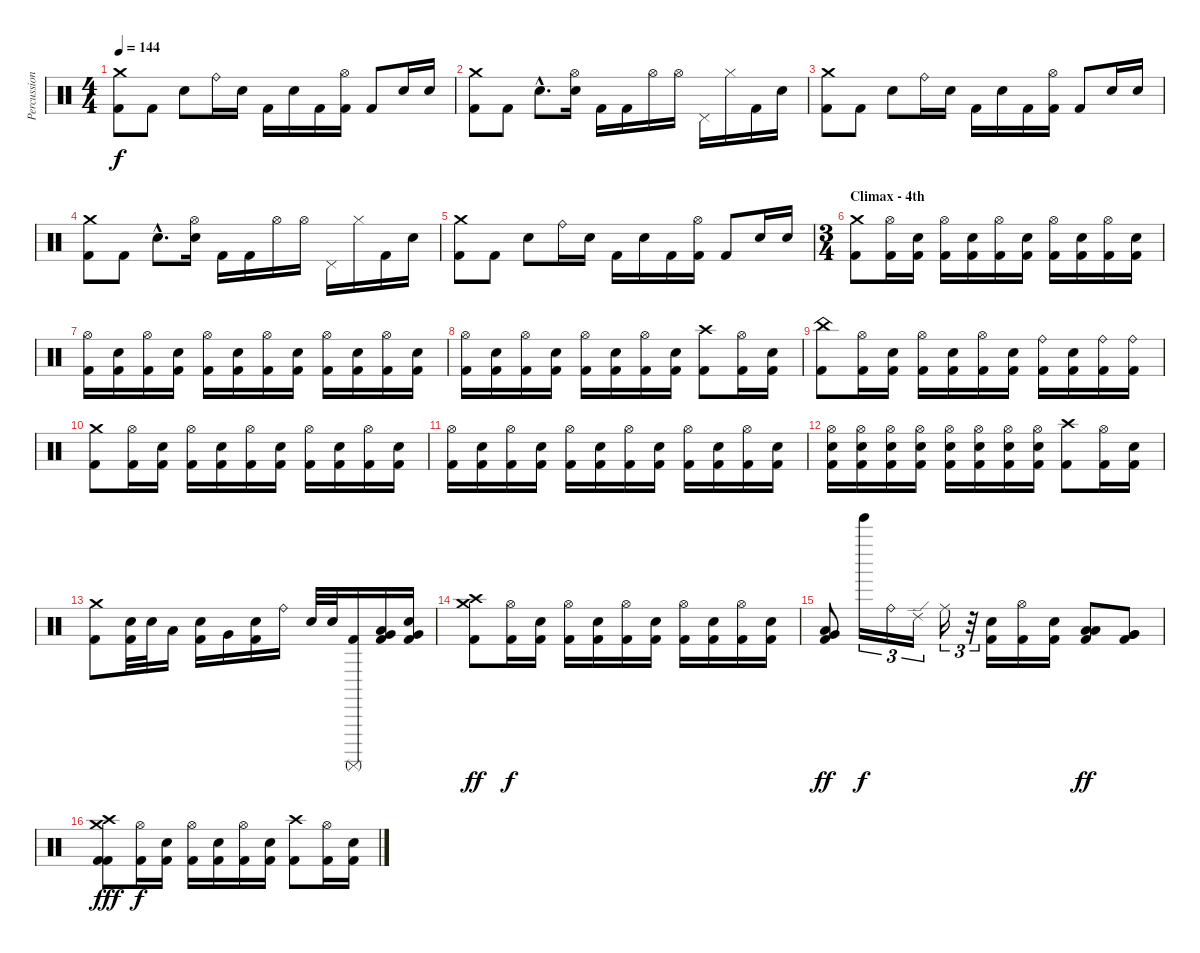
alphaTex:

\track ("Percussion" "Percussion") {instrument percussion}
\staff {score}
\articulation defaults
\ts (4 4)
\tempo 144
\clef neutral
\ks c
("Crash medium (hit)" "Kick (hit) 2").8{dy f} "Kick (hit) 2".8 "Electric Snare (hit)".8 "Ride (bell)".16 "Electric Snare (hit)".16 "Kick (hit) 2".16 "Electric Snare (hit)".16 "Kick (hit) 2".16 ("Hi-Hat (open)" "Kick (hit) 2").16 "Kick (hit) 2".8 "Electric Snare (hit)".16 "Electric Snare (hit)".16 |
("Crash medium (hit)" "Kick (hit) 2").8 "Kick (hit) 2".8 "Electric Snare (hit)"{hac}.8{d} ("Hi-Hat (open)" "Electric Snare (hit)").16 "Kick (hit) 2".16 "Kick (hit) 2".16 "Hi-Hat (open)".16 "Hi-Hat (open)".16 "Pedal Hi-Hat (hit)".16 "Hi-Hat (closed)".16 "Kick (hit) 2".16 "Electric Snare (hit)".16 |
("Crash medium (hit)" "Kick (hit) 2").8 "Kick (hit) 2".8 "Electric Snare (hit)".8 "Ride (bell)".16 "Electric Snare (hit)".16 "Kick (hit) 2".16 "Electric Snare (hit)".16 "Kick (hit) 2".16 ("Hi-Hat (open)" "Kick (hit) 2").16 "Kick (hit) 2".8 "Electric Snare (hit)".16 "Electric Snare (hit)".16 |
("Crash medium (hit)" "Kick (hit) 2").8 "Kick (hit) 2".8 "Electric Snare (hit)"{hac}.8{d} ("Hi-Hat (open)" "Electric Snare (hit)").16 "Kick (hit) 2".16 "Kick (hit) 2".16 "Hi-Hat (open)".16 "Hi-Hat (open)".16 "Pedal Hi-Hat (hit)".16 "Hi-Hat (closed)".16 "Kick (hit) 2".16 "Electric Snare (hit)".16 |
("Crash medium (hit)" "Kick (hit) 2").8 "Kick (hit) 2".8 "Electric Snare (hit)".8 "Ride (bell)".16 "Electric Snare (hit)".16 "Kick (hit) 2".16 "Electric Snare (hit)".16 "Kick (hit) 2".16 ("Hi-Hat (open)" "Kick (hit) 2").16 "Kick (hit) 2".8 "Electric Snare (hit)".16 "Electric Snare (hit)".16 |
\ts (3 4)
\section ("" "Climax - 4th")
("Crash medium (hit)" "Kick (hit) 2").8{balance 8} ("Hi-Hat (open)" "Kick (hit) 2").16 ("Electric Snare (hit)" "Kick (hit) 2").16 ("Hi-Hat (open)" "Kick (hit) 2").16 ("Electric Snare (hit)" "Kick (hit) 2").16 ("Hi-Hat (open)" "Kick (hit) 2").16 ("Electric Snare (hit)" "Kick (hit) 2").16 ("Hi-Hat (open)" "Kick (hit) 2").16 ("Electric Snare (hit)" "Kick (hit) 2").16 ("Hi-Hat (open)" "Kick (hit) 2").16 ("Electric Snare (hit)" "Kick (hit) 2").16 |
("Hi-Hat (open)" "Kick (hit) 2").16 ("Electric Snare (hit)" "Kick (hit) 2").16 ("Hi-Hat (open)" "Kick (hit) 2").16 ("Electric Snare (hit)" "Kick (hit) 2").16 ("Hi-Hat (open)" "Kick (hit) 2").16 ("Electric Snare (hit)" "Kick (hit) 2").16 ("Hi-Hat (open)" "Kick (hit) 2").16 ("Electric Snare (hit)" "Kick (hit) 2").16 ("Hi-Hat (open)" "Kick (hit) 2").16 ("Electric Snare (hit)" "Kick (hit) 2").16 ("Hi-Hat (open)" "Kick (hit) 2").16 ("Electric Snare (hit)" "Kick (hit) 2").16 |
("Hi-Hat (open)" "Kick (hit) 2").16 ("Electric Snare (hit)" "Kick (hit) 2").16 ("Hi-Hat (open)" "Kick (hit) 2").16 ("Electric Snare (hit)" "Kick (hit) 2").16 ("Hi-Hat (open)" "Kick (hit) 2").16 ("Electric Snare (hit)" "Kick (hit) 2").16 ("Hi-Hat (open)" "Kick (hit) 2").16 ("Electric Snare (hit)" "Kick (hit) 2").16 ("Crash high (hit)" "Kick (hit) 2").8 ("Hi-Hat (open)" "Kick (hit) 2").16 ("Electric Snare (hit)" "Kick (hit) 2").16 |
("China (hit)" "Kick (hit) 2").8 ("Hi-Hat (open)" "Kick (hit) 2").16 ("Electric Snare (hit)" "Kick (hit) 2").16 ("Hi-Hat (open)" "Kick (hit) 2").16 ("Electric Snare (hit)" "Kick (hit) 2").16 ("Hi-Hat (open)" "Kick (hit) 2").16 ("Electric Snare (hit)" "Kick (hit) 2").16 ("Ride (bell)" "Kick (hit) 2").16 ("Electric Snare (hit)" "Kick (hit) 2").16 ("Ride (bell)" "Kick (hit) 2").16 ("Ride (bell)" "Kick (hit) 2").16 |
("Crash medium (hit)" "Kick (hit) 2").8 ("Hi-Hat (open)" "Kick (hit) 2").16 ("Electric Snare (hit)" "Kick (hit) 2").16 ("Hi-Hat (open)" "Kick (hit) 2").16 ("Electric Snare (hit)" "Kick (hit) 2").16 ("Hi-Hat (open)" "Kick (hit) 2").16 ("Electric Snare (hit)" "Kick (hit) 2").16 ("Hi-Hat (open)" "Kick (hit) 2").16 ("Electric Snare (hit)" "Kick (hit) 2").16 ("Hi-Hat (open)" "Kick (hit) 2").16 ("Electric Snare (hit)" "Kick (hit) 2").16 |
("Hi-Hat (open)" "Kick (hit) 2").16 ("Electric Snare (hit)" "Kick (hit) 2").16 ("Hi-Hat (open)" "Kick (hit) 2").16 ("Electric Snare (hit)" "Kick (hit) 2").16 ("Hi-Hat (open)" "Kick (hit) 2").16 ("Electric Snare (hit)" "Kick (hit) 2").16 ("Hi-Hat (open)" "Kick (hit) 2").16 ("Electric Snare (hit)" "Kick (hit) 2").16 ("Hi-Hat (open)" "Kick (hit) 2").16 ("Electric Snare (hit)" "Kick (hit) 2").16 ("Hi-Hat (open)" "Kick (hit) 2").16 ("Electric Snare (hit)" "Kick (hit) 2").16 |
("Hi-Hat (open)" "Electric Snare (hit)" "Kick (hit) 2").16 ("Hi-Hat (open)" "Electric Snare (hit)" "Kick (hit) 2").16 ("Hi-Hat (open)" "Electric Snare (hit)" "Kick (hit) 2").16 ("Hi-Hat (open)" "Electric Snare (hit)" "Kick (hit) 2").16 ("Hi-Hat (open)" "Electric Snare (hit)" "Kick (hit) 2").16 ("Hi-Hat (open)" "Electric Snare (hit)" "Kick (hit) 2").16 ("Hi-Hat (open)" "Electric Snare (hit)" "Kick (hit) 2").16 ("Hi-Hat (open)" "Electric Snare (hit)" "Kick (hit) 2").16 ("Crash high (hit)" "Kick (hit) 2").8 ("Hi-Hat (open)" "Kick (hit) 2").16 ("Electric Snare (hit)" "Kick (hit) 2").16 |
("Crash medium (hit)" "Kick (hit) 2").8 ("Electric Snare (hit)" "Kick (hit) 2").32 "Electric Snare (hit)".32 "Low Tom (hit)".16 ("Electric Snare (hit)" "Kick (hit) 2").16 "Very Low Tom (hit)".16 ("Electric Snare (hit)" "Kick (hit) 2").16 "Ride (bell)".16 "Electric Snare (hit)".32 "Electric Snare (hit)".32 ("Surdo (mute)" "Kick (hit) 2").16 ("Low Tom (hit)" "Very Low Tom (hit)" "Kick (hit) 2").16 ("Very Low Tom (hit)" "Electric Snare (hit)" "Kick (hit) 2").16 |
("Crash medium (hit)" "Crash high (hit)" "Kick (hit) 2").8{dy ff} ("Hi-Hat (open)" "Kick (hit) 2").16{dy f} ("Electric Snare (hit)" "Kick (hit) 2").16 ("Hi-Hat (open)" "Kick (hit) 2").16 ("Electric Snare (hit)" "Kick (hit) 2").16 ("Hi-Hat (open)" "Kick (hit) 2").16 ("Electric Snare (hit)" "Kick (hit) 2").16 ("Hi-Hat (open)" "Kick (hit) 2").16 ("Electric Snare (hit)" "Kick (hit) 2").16 ("Hi-Hat (open)" "Kick (hit) 2").16 ("Electric Snare (hit)" "Kick (hit) 2").16 |
("Very Low Tom (hit)" "Low Tom (hit)" "Kick (hit) 2").8{dy ff} "Tinkle Bell (hit)".16{tu (3 2) dy f} "Ride (bell)".16{tu (3 2)} "Ride (edge) 2".16{tu (3 2)} "Ride (middle)".16{tu (3 2)} r.32{tu (3 2)} ("Electric Snare (hit)" "Kick (hit) 2").16 ("Hi-Hat (open)" "Kick (hit) 2").16 ("Electric Snare (hit)" "Kick (hit) 2").16 ("Low Tom (hit)" "Low Tom (hit)" "Kick (hit) 2").8{dy ff} ("Very Low Tom (hit)" "Very Low Tom (hit)" "Kick (hit) 2").8 |
("Crash high (hit)" "Crash medium (hit)" "Kick (hit) 2" "Kick (hit) 2").8{dy fff} ("Hi-Hat (open)" "Kick (hit) 2").16{dy f} ("Electric Snare (hit)" "Kick (hit) 2").16 ("Hi-Hat (open)" "Kick (hit) 2").16 ("Electric Snare (hit)" "Kick (hit) 2").16 ("Hi-Hat (open)" "Kick (hit) 2").16 ("Electric Snare (hit)" "Kick (hit) 2").16 ("Crash high (hit)" "Kick (hit) 2").8 ("Hi-Hat (open)" "Kick (hit) 2").16 ("Electric Snare (hit)" "Kick (hit) 2").16
